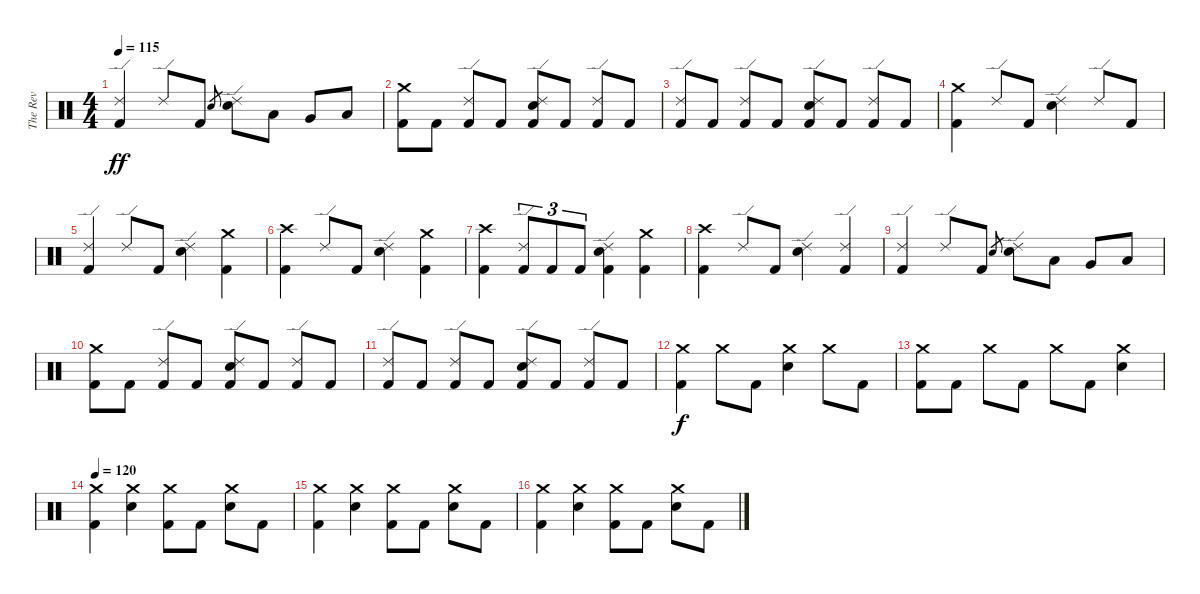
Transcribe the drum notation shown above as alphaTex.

\track ("The Rev" "The Rev") {instrument percussion}
\staff {score}
\articulation defaults
\ts (4 4)
\tempo 115
\clef neutral
\ks c
("Ride (edge) 2" "Kick (hit) 2").4{dy ff} "Ride (edge) 2".8 "Kick (hit) 2".8 "Electric Snare (hit)".8{gr} ("Ride (edge) 2" "Electric Snare (hit)").8 "Low Tom (hit)".8 "Very Low Tom (hit)".8 "Low Floor Tom (hit)".8 |
("Crash medium (hit)" "Kick (hit) 2").8 "Kick (hit) 2".8 ("Ride (edge) 2" "Kick (hit) 2").8 "Kick (hit) 2".8 ("Ride (edge) 2" "Electric Snare (hit)" "Kick (hit) 2").8 "Kick (hit) 2".8 ("Ride (edge) 2" "Kick (hit) 2").8 "Kick (hit) 2".8 |
("Ride (edge) 2" "Kick (hit) 2").8 "Kick (hit) 2".8 ("Ride (edge) 2" "Kick (hit) 2").8 "Kick (hit) 2".8 ("Ride (edge) 2" "Electric Snare (hit)" "Kick (hit) 2").8 "Kick (hit) 2".8 ("Ride (edge) 2" "Kick (hit) 2").8 "Kick (hit) 2".8 |
("Crash medium (hit)" "Kick (hit) 2").4 "Ride (edge) 2".8 "Kick (hit) 2".8 ("Ride (edge) 2" "Electric Snare (hit)").4 "Ride (edge) 2".8 "Kick (hit) 2".8 |
("Ride (edge) 2" "Kick (hit) 2").4 "Ride (edge) 2".8 "Kick (hit) 2".8 ("Ride (edge) 2" "Electric Snare (hit)").4 ("Crash medium (hit)" "Kick (hit) 2").4 |
("Crash high (hit)" "Kick (hit) 2").4 "Ride (edge) 2".8 "Kick (hit) 2".8 ("Ride (edge) 2" "Electric Snare (hit)").4 ("Crash medium (hit)" "Kick (hit) 2").4 |
("Crash high (hit)" "Kick (hit) 2").4 ("Ride (edge) 2" "Kick (hit) 2").8{tu (3 2)} "Kick (hit) 2".8{tu (3 2)} "Kick (hit) 2".8{tu (3 2)} ("Ride (edge) 2" "Electric Snare (hit)" "Kick (hit) 2").4 ("Crash medium (hit)" "Kick (hit) 2").4 |
("Crash high (hit)" "Kick (hit) 2").4 "Ride (edge) 2".8 "Kick (hit) 2".8 ("Ride (edge) 2" "Electric Snare (hit)").4 ("Ride (edge) 2" "Kick (hit) 2").4 |
("Ride (edge) 2" "Kick (hit) 2").4 "Ride (edge) 2".8 "Kick (hit) 2".8 "Electric Snare (hit)".8{gr} ("Ride (edge) 2" "Electric Snare (hit)").8 "Low Tom (hit)".8 "Very Low Tom (hit)".8 "Low Floor Tom (hit)".8 |
("Crash medium (hit)" "Kick (hit) 2").8 "Kick (hit) 2".8 ("Ride (edge) 2" "Kick (hit) 2").8 "Kick (hit) 2".8 ("Ride (edge) 2" "Electric Snare (hit)" "Kick (hit) 2").8 "Kick (hit) 2".8 ("Ride (edge) 2" "Kick (hit) 2").8 "Kick (hit) 2".8 |
("Ride (edge) 2" "Kick (hit) 2").8 "Kick (hit) 2".8 ("Ride (edge) 2" "Kick (hit) 2").8 "Kick (hit) 2".8 ("Ride (edge) 2" "Electric Snare (hit)" "Kick (hit) 2").8 "Kick (hit) 2".8 ("Ride (edge) 2" "Kick (hit) 2").8 "Kick (hit) 2".8 |
("Crash medium (hit)" "Kick (hit) 2").4{dy f} "Crash medium (hit)".8 "Kick (hit) 2".8 ("Crash medium (hit)" "Electric Snare (hit)").4 "Crash medium (hit)".8 "Kick (hit) 2".8 |
("Crash medium (hit)" "Kick (hit) 2").8 "Kick (hit) 2".8 "Crash medium (hit)".8 "Kick (hit) 2".8 "Crash medium (hit)".8 "Kick (hit) 2".8 ("Crash medium (hit)" "Electric Snare (hit)").4 |
\tempo 120
("Crash medium (hit)" "Kick (hit) 2").4 ("Crash medium (hit)" "Electric Snare (hit)").4 ("Crash medium (hit)" "Kick (hit) 2").8 "Kick (hit) 2".8 ("Crash medium (hit)" "Electric Snare (hit)").8 "Kick (hit) 2".8 |
("Crash medium (hit)" "Kick (hit) 2").4 ("Crash medium (hit)" "Electric Snare (hit)").4 ("Crash medium (hit)" "Kick (hit) 2").8 "Kick (hit) 2".8 ("Crash medium (hit)" "Electric Snare (hit)").8 "Kick (hit) 2".8 |
("Crash medium (hit)" "Kick (hit) 2").4 ("Crash medium (hit)" "Electric Snare (hit)").4 ("Crash medium (hit)" "Kick (hit) 2").8 "Kick (hit) 2".8 ("Crash medium (hit)" "Electric Snare (hit)").8 "Kick (hit) 2".8
